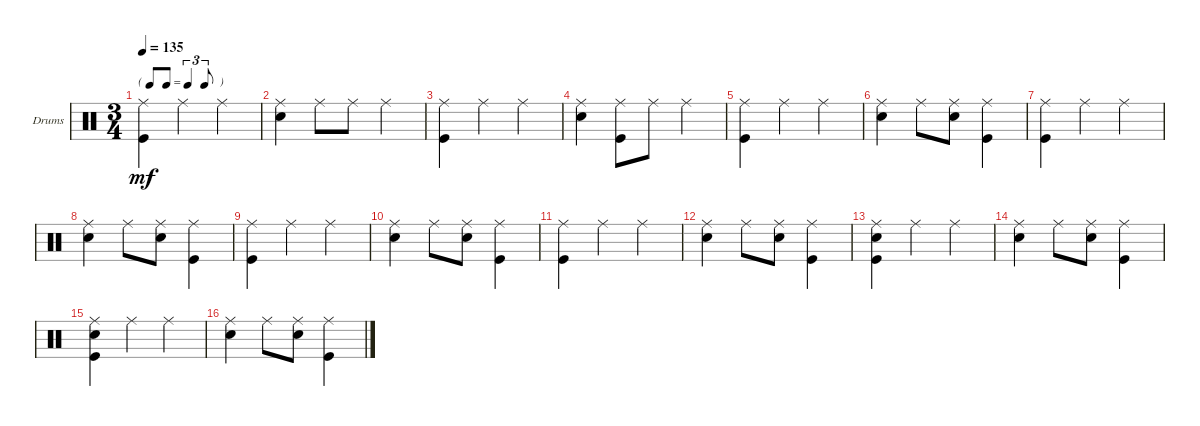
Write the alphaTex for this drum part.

\defaultSystemsLayout 4
\bracketExtendMode groupsimilarinstruments
\firstSystemTrackNameOrientation horizontal
\otherSystemsTrackNameOrientation horizontal
\track ("Drums" "Drums") {instrument percussion}
\staff {score}
\articulation defaults
\ts (3 4)
\tf triplet8th
\tempo 135
\clef neutral
\ks c
("Ride (middle)" "Kick (hit)").4{dy mf} "Ride (middle)".4 "Ride (middle)".4 |
("Snare (hit) 2" "Ride (middle)").4 "Ride (middle)".8 "Ride (middle)".8 "Ride (middle)".4 |
("Ride (middle)" "Kick (hit)").4 "Ride (middle)".4 "Ride (middle)".4 |
("Snare (hit) 2" "Ride (middle)").4 ("Ride (middle)" "Kick (hit)").8 "Ride (middle)".8 "Ride (middle)".4 |
("Ride (middle)" "Kick (hit)").4 "Ride (middle)".4 "Ride (middle)".4 |
("Snare (hit) 2" "Ride (middle)").4 "Ride (middle)".8 ("Ride (middle)" "Snare (hit) 2").8 ("Ride (middle)" "Kick (hit)").4 |
("Ride (middle)" "Kick (hit)").4 "Ride (middle)".4 "Ride (middle)".4 |
("Snare (hit) 2" "Ride (middle)").4 "Ride (middle)".8 ("Ride (middle)" "Snare (hit) 2").8 ("Ride (middle)" "Kick (hit)").4 |
("Ride (middle)" "Kick (hit)").4 "Ride (middle)".4 "Ride (middle)".4 |
("Snare (hit) 2" "Ride (middle)").4 "Ride (middle)".8 ("Ride (middle)" "Snare (hit) 2").8 ("Ride (middle)" "Kick (hit)").4 |
("Ride (middle)" "Kick (hit)").4 "Ride (middle)".4 "Ride (middle)".4 |
("Snare (hit) 2" "Ride (middle)").4 "Ride (middle)".8 ("Ride (middle)" "Snare (hit) 2").8 ("Ride (middle)" "Kick (hit)").4 |
("Ride (middle)" "Kick (hit)" "Snare (hit) 2").4 "Ride (middle)".4 "Ride (middle)".4 |
("Snare (hit) 2" "Ride (middle)").4 "Ride (middle)".8 ("Ride (middle)" "Snare (hit) 2").8 ("Ride (middle)" "Kick (hit)").4 |
("Ride (middle)" "Kick (hit)" "Snare (hit) 2").4 "Ride (middle)".4 "Ride (middle)".4 |
("Snare (hit) 2" "Ride (middle)").4 "Ride (middle)".8 ("Ride (middle)" "Snare (hit) 2").8 ("Ride (middle)" "Kick (hit)").4
